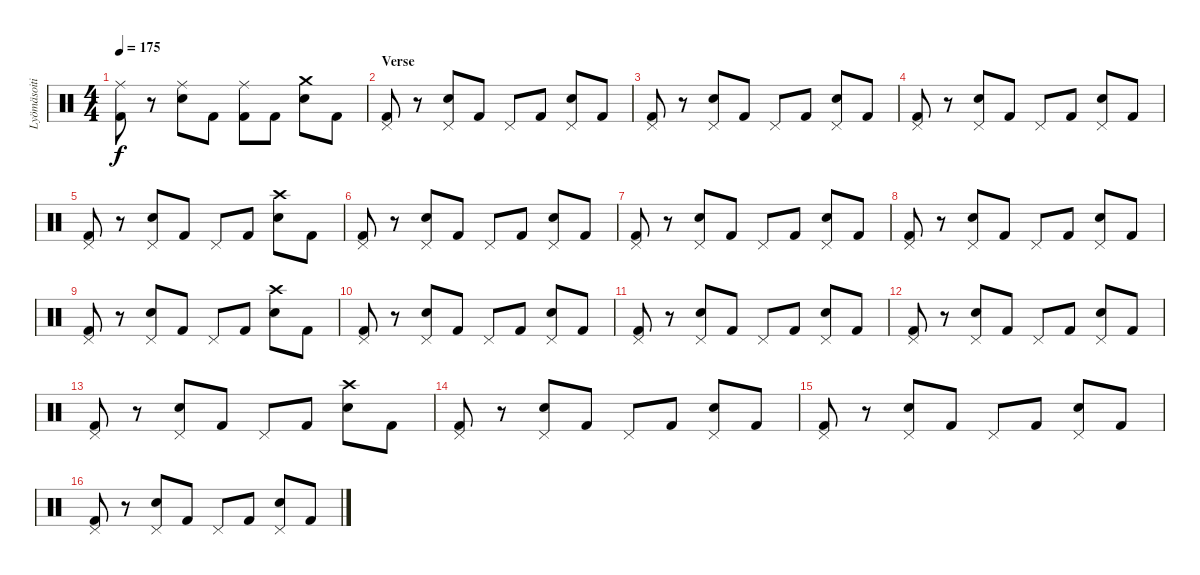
\track ("Lyömäsoitin" "Lyömäsoiti") {instrument percussion}
\staff {score}
\articulation defaults
\ts (4 4)
\tempo 175
\clef neutral
\ks c
("Ride (middle)" "Kick (hit) 2").8{dy f} r.8 ("Ride (middle)" "Electric Snare (hit)").8 "Kick (hit) 2".8 ("Ride (middle)" "Kick (hit) 2").8 "Kick (hit) 2".8 ("Crash medium (hit)" "Electric Snare (hit)").8 "Kick (hit) 2".8 |
\section ("" "Verse")
("Pedal Hi-Hat (hit)" "Kick (hit) 2").8 r.8 ("Pedal Hi-Hat (hit)" "Electric Snare (hit)").8 "Kick (hit) 2".8 "Pedal Hi-Hat (hit)".8 "Kick (hit) 2".8 ("Pedal Hi-Hat (hit)" "Electric Snare (hit)").8 "Kick (hit) 2".8 |
("Pedal Hi-Hat (hit)" "Kick (hit) 2").8 r.8 ("Pedal Hi-Hat (hit)" "Electric Snare (hit)").8 "Kick (hit) 2".8 "Pedal Hi-Hat (hit)".8 "Kick (hit) 2".8 ("Pedal Hi-Hat (hit)" "Electric Snare (hit)").8 "Kick (hit) 2".8 |
("Pedal Hi-Hat (hit)" "Kick (hit) 2").8 r.8 ("Pedal Hi-Hat (hit)" "Electric Snare (hit)").8 "Kick (hit) 2".8 "Pedal Hi-Hat (hit)".8 "Kick (hit) 2".8 ("Pedal Hi-Hat (hit)" "Electric Snare (hit)").8 "Kick (hit) 2".8 |
("Pedal Hi-Hat (hit)" "Kick (hit) 2").8 r.8 ("Pedal Hi-Hat (hit)" "Electric Snare (hit)").8 "Kick (hit) 2".8 "Pedal Hi-Hat (hit)".8 "Kick (hit) 2".8 ("Crash high (hit)" "Electric Snare (hit)").8 "Kick (hit) 2".8 |
("Pedal Hi-Hat (hit)" "Kick (hit) 2").8 r.8 ("Pedal Hi-Hat (hit)" "Electric Snare (hit)").8 "Kick (hit) 2".8 "Pedal Hi-Hat (hit)".8 "Kick (hit) 2".8 ("Pedal Hi-Hat (hit)" "Electric Snare (hit)").8 "Kick (hit) 2".8 |
("Pedal Hi-Hat (hit)" "Kick (hit) 2").8 r.8 ("Pedal Hi-Hat (hit)" "Electric Snare (hit)").8 "Kick (hit) 2".8 "Pedal Hi-Hat (hit)".8 "Kick (hit) 2".8 ("Pedal Hi-Hat (hit)" "Electric Snare (hit)").8 "Kick (hit) 2".8 |
("Pedal Hi-Hat (hit)" "Kick (hit) 2").8 r.8 ("Pedal Hi-Hat (hit)" "Electric Snare (hit)").8 "Kick (hit) 2".8 "Pedal Hi-Hat (hit)".8 "Kick (hit) 2".8 ("Pedal Hi-Hat (hit)" "Electric Snare (hit)").8 "Kick (hit) 2".8 |
("Pedal Hi-Hat (hit)" "Kick (hit) 2").8 r.8 ("Pedal Hi-Hat (hit)" "Electric Snare (hit)").8 "Kick (hit) 2".8 "Pedal Hi-Hat (hit)".8 "Kick (hit) 2".8 ("Crash high (hit)" "Electric Snare (hit)").8 "Kick (hit) 2".8 |
("Pedal Hi-Hat (hit)" "Kick (hit) 2").8 r.8 ("Pedal Hi-Hat (hit)" "Electric Snare (hit)").8 "Kick (hit) 2".8 "Pedal Hi-Hat (hit)".8 "Kick (hit) 2".8 ("Pedal Hi-Hat (hit)" "Electric Snare (hit)").8 "Kick (hit) 2".8 |
("Pedal Hi-Hat (hit)" "Kick (hit) 2").8 r.8 ("Pedal Hi-Hat (hit)" "Electric Snare (hit)").8 "Kick (hit) 2".8 "Pedal Hi-Hat (hit)".8 "Kick (hit) 2".8 ("Pedal Hi-Hat (hit)" "Electric Snare (hit)").8 "Kick (hit) 2".8 |
("Pedal Hi-Hat (hit)" "Kick (hit) 2").8 r.8 ("Pedal Hi-Hat (hit)" "Electric Snare (hit)").8 "Kick (hit) 2".8 "Pedal Hi-Hat (hit)".8 "Kick (hit) 2".8 ("Pedal Hi-Hat (hit)" "Electric Snare (hit)").8 "Kick (hit) 2".8 |
("Pedal Hi-Hat (hit)" "Kick (hit) 2").8 r.8 ("Pedal Hi-Hat (hit)" "Electric Snare (hit)").8 "Kick (hit) 2".8 "Pedal Hi-Hat (hit)".8 "Kick (hit) 2".8 ("Crash high (hit)" "Electric Snare (hit)").8 "Kick (hit) 2".8 |
("Pedal Hi-Hat (hit)" "Kick (hit) 2").8 r.8 ("Pedal Hi-Hat (hit)" "Electric Snare (hit)").8 "Kick (hit) 2".8 "Pedal Hi-Hat (hit)".8 "Kick (hit) 2".8 ("Pedal Hi-Hat (hit)" "Electric Snare (hit)").8 "Kick (hit) 2".8 |
("Pedal Hi-Hat (hit)" "Kick (hit) 2").8 r.8 ("Pedal Hi-Hat (hit)" "Electric Snare (hit)").8 "Kick (hit) 2".8 "Pedal Hi-Hat (hit)".8 "Kick (hit) 2".8 ("Pedal Hi-Hat (hit)" "Electric Snare (hit)").8 "Kick (hit) 2".8 |
("Pedal Hi-Hat (hit)" "Kick (hit) 2").8 r.8 ("Pedal Hi-Hat (hit)" "Electric Snare (hit)").8 "Kick (hit) 2".8 "Pedal Hi-Hat (hit)".8 "Kick (hit) 2".8 ("Pedal Hi-Hat (hit)" "Electric Snare (hit)").8 "Kick (hit) 2".8
